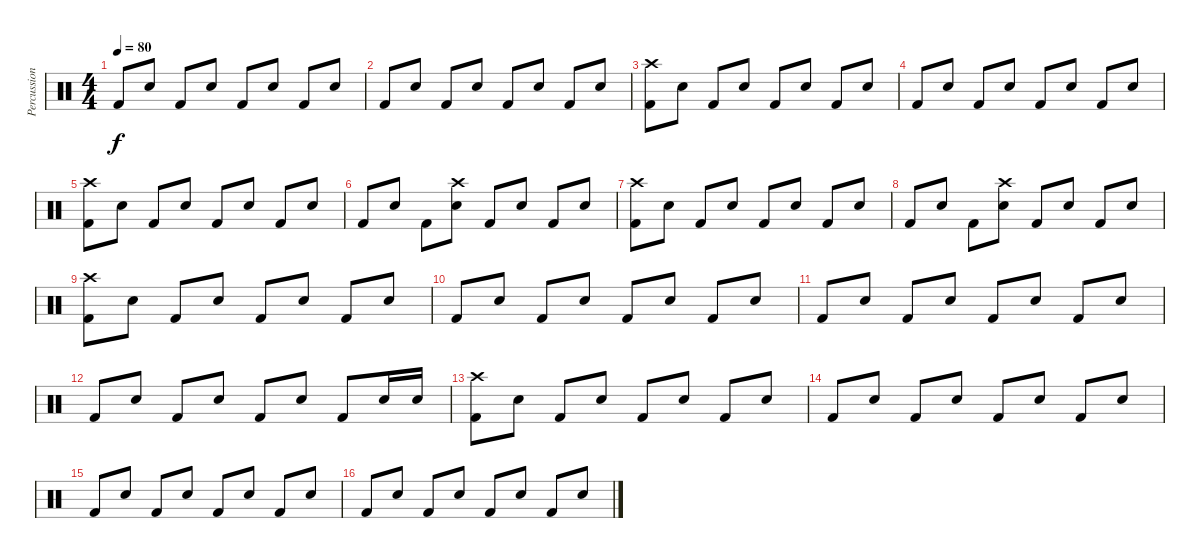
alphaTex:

\track ("Percussion" "Percussion") {instrument percussion}
\staff {score}
\articulation defaults
\ts (4 4)
\tempo 80
\clef neutral
\ks c "Kick (hit) 2".8{dy f} "Electric Snare (hit)".8 "Kick (hit) 2".8 "Electric Snare (hit)".8 "Kick (hit) 2".8 "Electric Snare (hit)".8 "Kick (hit) 2".8 "Electric Snare (hit)".8
|
"Kick (hit) 2".8 "Electric Snare (hit)".8 "Kick (hit) 2".8 "Electric Snare (hit)".8 "Kick (hit) 2".8 "Electric Snare (hit)".8 "Kick (hit) 2".8 "Electric Snare (hit)".8 |
("Kick (hit) 2" "Crash high (hit)").8 "Electric Snare (hit)".8 "Kick (hit) 2".8 "Electric Snare (hit)".8 "Kick (hit) 2".8 "Electric Snare (hit)".8 "Kick (hit) 2".8 "Electric Snare (hit)".8 |
"Kick (hit) 2".8 "Electric Snare (hit)".8 "Kick (hit) 2".8 "Electric Snare (hit)".8 "Kick (hit) 2".8 "Electric Snare (hit)".8 "Kick (hit) 2".8 "Electric Snare (hit)".8 |
("Kick (hit) 2" "Crash high (hit)").8 "Electric Snare (hit)".8 "Kick (hit) 2".8 "Electric Snare (hit)".8 "Kick (hit) 2".8 "Electric Snare (hit)".8 "Kick (hit) 2".8 "Electric Snare (hit)".8 |
"Kick (hit) 2".8 "Electric Snare (hit)".8 "Kick (hit) 2".8 ("Electric Snare (hit)" "Crash high (hit)").8 "Kick (hit) 2".8 "Electric Snare (hit)".8 "Kick (hit) 2".8 "Electric Snare (hit)".8 |
("Kick (hit) 2" "Crash high (hit)").8 "Electric Snare (hit)".8 "Kick (hit) 2".8 "Electric Snare (hit)".8 "Kick (hit) 2".8 "Electric Snare (hit)".8 "Kick (hit) 2".8 "Electric Snare (hit)".8 |
"Kick (hit) 2".8 "Electric Snare (hit)".8 "Kick (hit) 2".8 ("Electric Snare (hit)" "Crash high (hit)").8 "Kick (hit) 2".8 "Electric Snare (hit)".8 "Kick (hit) 2".8 "Electric Snare (hit)".8 |
("Kick (hit) 2" "Crash high (hit)").8 "Electric Snare (hit)".8 "Kick (hit) 2".8 "Electric Snare (hit)".8 "Kick (hit) 2".8 "Electric Snare (hit)".8 "Kick (hit) 2".8 "Electric Snare (hit)".8 |
"Kick (hit) 2".8 "Electric Snare (hit)".8 "Kick (hit) 2".8 "Electric Snare (hit)".8 "Kick (hit) 2".8 "Electric Snare (hit)".8 "Kick (hit) 2".8 "Electric Snare (hit)".8 |
"Kick (hit) 2".8 "Electric Snare (hit)".8 "Kick (hit) 2".8 "Electric Snare (hit)".8 "Kick (hit) 2".8 "Electric Snare (hit)".8 "Kick (hit) 2".8 "Electric Snare (hit)".8 |
"Kick (hit) 2".8 "Electric Snare (hit)".8 "Kick (hit) 2".8 "Electric Snare (hit)".8 "Kick (hit) 2".8 "Electric Snare (hit)".8 "Kick (hit) 2".8 "Electric Snare (hit)".16 "Snare (hit) 2".16 |
("Kick (hit) 2" "Crash high (hit)").8 "Electric Snare (hit)".8 "Kick (hit) 2".8 "Electric Snare (hit)".8 "Kick (hit) 2".8 "Electric Snare (hit)".8 "Kick (hit) 2".8 "Electric Snare (hit)".8 |
"Kick (hit) 2".8 "Electric Snare (hit)".8 "Kick (hit) 2".8 "Electric Snare (hit)".8 "Kick (hit) 2".8 "Electric Snare (hit)".8 "Kick (hit) 2".8 "Electric Snare (hit)".8 |
"Kick (hit) 2".8 "Electric Snare (hit)".8 "Kick (hit) 2".8 "Electric Snare (hit)".8 "Kick (hit) 2".8 "Electric Snare (hit)".8 "Kick (hit) 2".8 "Electric Snare (hit)".8 |
"Kick (hit) 2".8 "Electric Snare (hit)".8 "Kick (hit) 2".8 "Electric Snare (hit)".8 "Kick (hit) 2".8 "Electric Snare (hit)".8 "Kick (hit) 2".8 "Electric Snare (hit)".8
